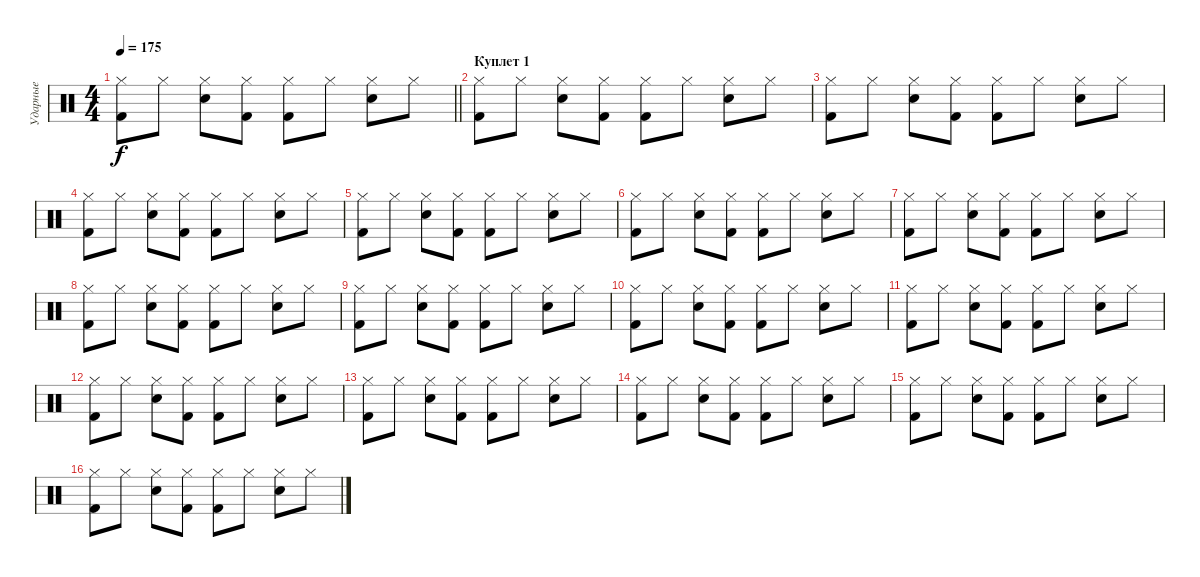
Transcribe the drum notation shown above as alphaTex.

\track ("Ударные" "Ударные") {instrument percussion}
\staff {score}
\articulation defaults
\ts (4 4)
\tempo 175
\clef neutral
\barLineRight lightlight
\ks c
("Hi-Hat (closed)" "Kick (hit) 2").8{dy f} "Hi-Hat (closed)".8 ("Hi-Hat (closed)" "Snare (hit) 2").8 ("Hi-Hat (closed)" "Kick (hit) 2").8 ("Hi-Hat (closed)" "Kick (hit) 2").8 "Hi-Hat (closed)".8 ("Hi-Hat (closed)" "Snare (hit) 2").8 "Hi-Hat (closed)".8 |
\section ("" "Куплет 1")
("Hi-Hat (closed)" "Kick (hit) 2").8 "Hi-Hat (closed)".8 ("Hi-Hat (closed)" "Snare (hit) 2").8 ("Hi-Hat (closed)" "Kick (hit) 2").8 ("Hi-Hat (closed)" "Kick (hit) 2").8 "Hi-Hat (closed)".8 ("Hi-Hat (closed)" "Snare (hit) 2").8 "Hi-Hat (closed)".8 |
("Hi-Hat (closed)" "Kick (hit) 2").8 "Hi-Hat (closed)".8 ("Hi-Hat (closed)" "Snare (hit) 2").8 ("Hi-Hat (closed)" "Kick (hit) 2").8 ("Hi-Hat (closed)" "Kick (hit) 2").8 "Hi-Hat (closed)".8 ("Hi-Hat (closed)" "Snare (hit) 2").8 "Hi-Hat (closed)".8 |
("Hi-Hat (closed)" "Kick (hit) 2").8 "Hi-Hat (closed)".8 ("Hi-Hat (closed)" "Snare (hit) 2").8 ("Hi-Hat (closed)" "Kick (hit) 2").8 ("Hi-Hat (closed)" "Kick (hit) 2").8 "Hi-Hat (closed)".8 ("Hi-Hat (closed)" "Snare (hit) 2").8 "Hi-Hat (closed)".8 |
("Hi-Hat (closed)" "Kick (hit) 2").8 "Hi-Hat (closed)".8 ("Hi-Hat (closed)" "Snare (hit) 2").8 ("Hi-Hat (closed)" "Kick (hit) 2").8 ("Hi-Hat (closed)" "Kick (hit) 2").8 "Hi-Hat (closed)".8 ("Hi-Hat (closed)" "Snare (hit) 2").8 "Hi-Hat (closed)".8 |
("Hi-Hat (closed)" "Kick (hit) 2").8 "Hi-Hat (closed)".8 ("Hi-Hat (closed)" "Snare (hit) 2").8 ("Hi-Hat (closed)" "Kick (hit) 2").8 ("Hi-Hat (closed)" "Kick (hit) 2").8 "Hi-Hat (closed)".8 ("Hi-Hat (closed)" "Snare (hit) 2").8 "Hi-Hat (closed)".8 |
("Hi-Hat (closed)" "Kick (hit) 2").8 "Hi-Hat (closed)".8 ("Hi-Hat (closed)" "Snare (hit) 2").8 ("Hi-Hat (closed)" "Kick (hit) 2").8 ("Hi-Hat (closed)" "Kick (hit) 2").8 "Hi-Hat (closed)".8 ("Hi-Hat (closed)" "Snare (hit) 2").8 "Hi-Hat (closed)".8 |
("Hi-Hat (closed)" "Kick (hit) 2").8 "Hi-Hat (closed)".8 ("Hi-Hat (closed)" "Snare (hit) 2").8 ("Hi-Hat (closed)" "Kick (hit) 2").8 ("Hi-Hat (closed)" "Kick (hit) 2").8 "Hi-Hat (closed)".8 ("Hi-Hat (closed)" "Snare (hit) 2").8 "Hi-Hat (closed)".8 |
("Hi-Hat (closed)" "Kick (hit) 2").8 "Hi-Hat (closed)".8 ("Hi-Hat (closed)" "Snare (hit) 2").8 ("Hi-Hat (closed)" "Kick (hit) 2").8 ("Hi-Hat (closed)" "Kick (hit) 2").8 "Hi-Hat (closed)".8 ("Hi-Hat (closed)" "Snare (hit) 2").8 "Hi-Hat (closed)".8 |
("Hi-Hat (closed)" "Kick (hit) 2").8 "Hi-Hat (closed)".8 ("Hi-Hat (closed)" "Snare (hit) 2").8 ("Hi-Hat (closed)" "Kick (hit) 2").8 ("Hi-Hat (closed)" "Kick (hit) 2").8 "Hi-Hat (closed)".8 ("Hi-Hat (closed)" "Snare (hit) 2").8 "Hi-Hat (closed)".8 |
("Hi-Hat (closed)" "Kick (hit) 2").8 "Hi-Hat (closed)".8 ("Hi-Hat (closed)" "Snare (hit) 2").8 ("Hi-Hat (closed)" "Kick (hit) 2").8 ("Hi-Hat (closed)" "Kick (hit) 2").8 "Hi-Hat (closed)".8 ("Hi-Hat (closed)" "Snare (hit) 2").8 "Hi-Hat (closed)".8 |
("Hi-Hat (closed)" "Kick (hit) 2").8 "Hi-Hat (closed)".8 ("Hi-Hat (closed)" "Snare (hit) 2").8 ("Hi-Hat (closed)" "Kick (hit) 2").8 ("Hi-Hat (closed)" "Kick (hit) 2").8 "Hi-Hat (closed)".8 ("Hi-Hat (closed)" "Snare (hit) 2").8 "Hi-Hat (closed)".8 |
("Hi-Hat (closed)" "Kick (hit) 2").8 "Hi-Hat (closed)".8 ("Hi-Hat (closed)" "Snare (hit) 2").8 ("Hi-Hat (closed)" "Kick (hit) 2").8 ("Hi-Hat (closed)" "Kick (hit) 2").8 "Hi-Hat (closed)".8 ("Hi-Hat (closed)" "Snare (hit) 2").8 "Hi-Hat (closed)".8 |
("Hi-Hat (closed)" "Kick (hit) 2").8 "Hi-Hat (closed)".8 ("Hi-Hat (closed)" "Snare (hit) 2").8 ("Hi-Hat (closed)" "Kick (hit) 2").8 ("Hi-Hat (closed)" "Kick (hit) 2").8 "Hi-Hat (closed)".8 ("Hi-Hat (closed)" "Snare (hit) 2").8 "Hi-Hat (closed)".8 |
("Hi-Hat (closed)" "Kick (hit) 2").8 "Hi-Hat (closed)".8 ("Hi-Hat (closed)" "Snare (hit) 2").8 ("Hi-Hat (closed)" "Kick (hit) 2").8 ("Hi-Hat (closed)" "Kick (hit) 2").8 "Hi-Hat (closed)".8 ("Hi-Hat (closed)" "Snare (hit) 2").8 "Hi-Hat (closed)".8 |
("Hi-Hat (closed)" "Kick (hit) 2").8 "Hi-Hat (closed)".8 ("Hi-Hat (closed)" "Snare (hit) 2").8 ("Hi-Hat (closed)" "Kick (hit) 2").8 ("Hi-Hat (closed)" "Kick (hit) 2").8 "Hi-Hat (closed)".8 ("Hi-Hat (closed)" "Snare (hit) 2").8 "Hi-Hat (closed)".8
